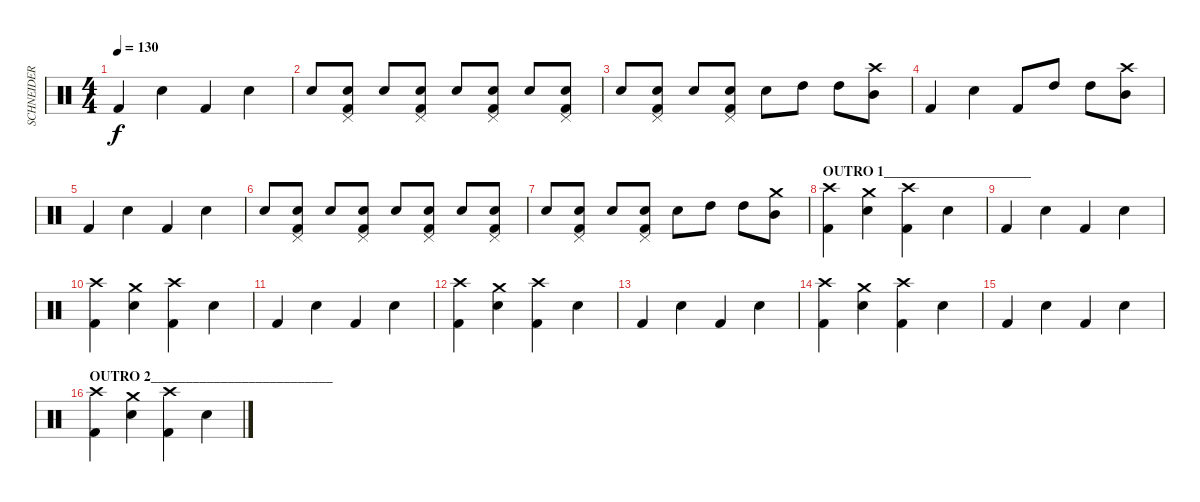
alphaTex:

\track ("SCHNEIDER - Drums" "SCHNEIDER ") {instrument percussion}
\staff {score}
\articulation defaults
\ts (4 4)
\tempo 130
\clef neutral
\ks c "Kick (hit) 2".4{dy f} "Snare (hit) 2".4 "Kick (hit) 2".4 "Snare (hit) 2".4
|
"Snare (hit) 2".8 ("Snare (hit) 2" "Kick (hit) 2" "Pedal Hi-Hat (hit)").8 "Snare (hit) 2".8 ("Snare (hit) 2" "Kick (hit) 2" "Pedal Hi-Hat (hit)").8 "Snare (hit) 2".8 ("Snare (hit) 2" "Kick (hit) 2" "Pedal Hi-Hat (hit)").8 "Snare (hit) 2".8 ("Snare (hit) 2" "Kick (hit) 2" "Pedal Hi-Hat (hit)").8 |
"Snare (hit) 2".8 ("Snare (hit) 2" "Kick (hit) 2" "Pedal Hi-Hat (hit)").8 "Snare (hit) 2".8 ("Snare (hit) 2" "Kick (hit) 2" "Pedal Hi-Hat (hit)").8 "Snare (hit) 2".8 "High Tom (hit)".8 "High Tom (hit)".8 ("Mid Tom (hit)" "Crash high (hit)").8 |
"Kick (hit) 2".4 "Snare (hit) 2".4 "Kick (hit) 2".8 "High Tom (hit)".8 "High Tom (hit)".8 ("Mid Tom (hit)" "Crash high (hit)").8 |
"Kick (hit) 2".4 "Snare (hit) 2".4 "Kick (hit) 2".4 "Snare (hit) 2".4 |
"Snare (hit) 2".8 ("Snare (hit) 2" "Kick (hit) 2" "Pedal Hi-Hat (hit)").8 "Snare (hit) 2".8 ("Snare (hit) 2" "Kick (hit) 2" "Pedal Hi-Hat (hit)").8 "Snare (hit) 2".8 ("Snare (hit) 2" "Kick (hit) 2" "Pedal Hi-Hat (hit)").8 "Snare (hit) 2".8 ("Snare (hit) 2" "Kick (hit) 2" "Pedal Hi-Hat (hit)").8 |
"Snare (hit) 2".8 ("Snare (hit) 2" "Kick (hit) 2" "Pedal Hi-Hat (hit)").8 "Snare (hit) 2".8 ("Snare (hit) 2" "Kick (hit) 2" "Pedal Hi-Hat (hit)").8 "Snare (hit) 2".8 "High Tom (hit)".8 "High Tom (hit)".8 ("Mid Tom (hit)" "Crash medium (hit)").8 |
\section ("" "OUTRO 1_____________________")
("Crash high (hit)" "Kick (hit) 2").4 ("Crash medium (hit)" "Snare (hit) 2").4 ("Crash high (hit)" "Kick (hit) 2").4 "Snare (hit) 2".4 |
"Kick (hit) 2".4 "Snare (hit) 2".4 "Kick (hit) 2".4 "Snare (hit) 2".4 |
("Crash high (hit)" "Kick (hit) 2").4 ("Crash medium (hit)" "Snare (hit) 2").4 ("Crash high (hit)" "Kick (hit) 2").4 "Snare (hit) 2".4 |
"Kick (hit) 2".4 "Snare (hit) 2".4 "Kick (hit) 2".4 "Snare (hit) 2".4 |
("Crash high (hit)" "Kick (hit) 2").4 ("Crash medium (hit)" "Snare (hit) 2").4 ("Crash high (hit)" "Kick (hit) 2").4 "Snare (hit) 2".4 |
"Kick (hit) 2".4 "Snare (hit) 2".4 "Kick (hit) 2".4 "Snare (hit) 2".4 |
("Crash high (hit)" "Kick (hit) 2").4 ("Crash medium (hit)" "Snare (hit) 2").4 ("Crash high (hit)" "Kick (hit) 2").4 "Snare (hit) 2".4 |
"Kick (hit) 2".4 "Snare (hit) 2".4 "Kick (hit) 2".4 "Snare (hit) 2".4 |
\section ("" "OUTRO 2__________________________")
("Crash high (hit)" "Kick (hit) 2").4 ("Crash medium (hit)" "Snare (hit) 2").4 ("Crash high (hit)" "Kick (hit) 2").4 "Snare (hit) 2".4
